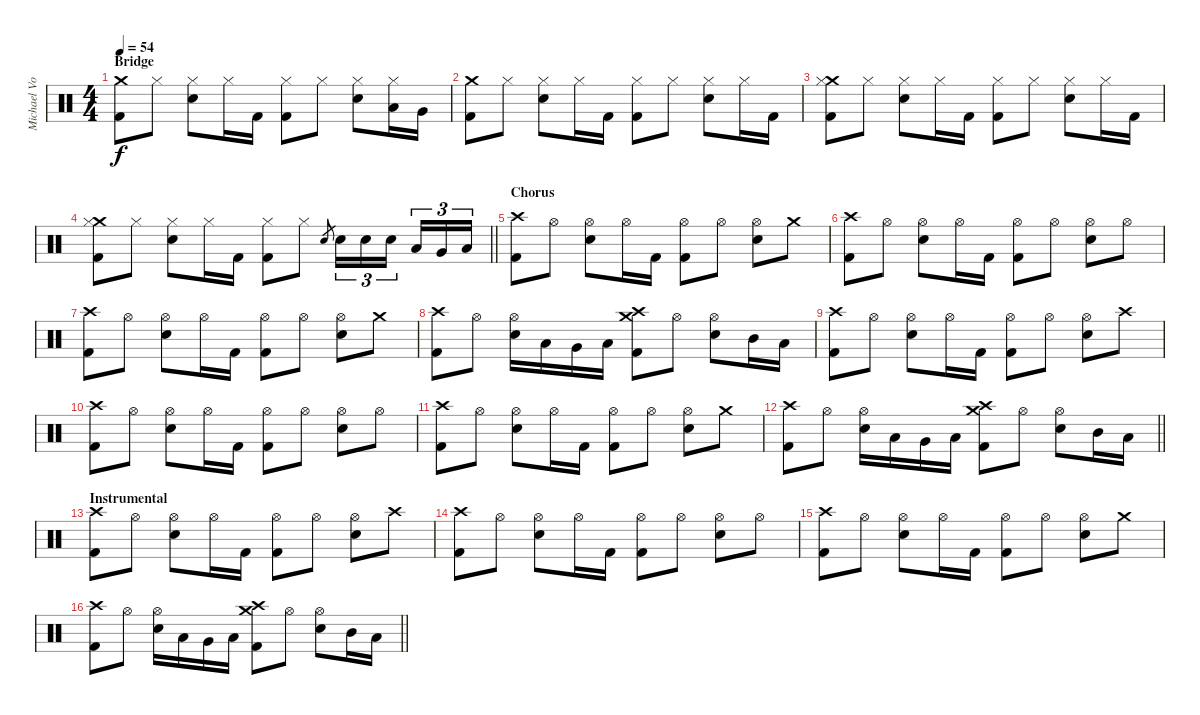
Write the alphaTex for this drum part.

\track ("Michael Von Knorring" "Michael Vo") {instrument percussion}
\staff {score}
\articulation defaults
\ts (4 4)
\section ("" "Bridge")
\tempo 54
\clef neutral
\ks c
("Crash medium (hit)" "Kick (hit) 2").8{dy f} "Hi-Hat (closed)".8 ("Snare (hit) 2" "Hi-Hat (closed)").8 "Hi-Hat (closed)".16 "Kick (hit) 2".16 ("Hi-Hat (closed)" "Kick (hit) 2").8 "Hi-Hat (closed)".8 ("Snare (hit) 2" "Hi-Hat (closed)").8 ("Hi-Hat (closed)" "Low Tom (hit)").16 "Very Low Tom (hit)".16 |
("Crash medium (hit)" "Kick (hit) 2").8 "Hi-Hat (closed)".8 ("Snare (hit) 2" "Hi-Hat (closed)").8 "Hi-Hat (closed)".16 "Kick (hit) 2".16 ("Hi-Hat (closed)" "Kick (hit) 2").8 "Hi-Hat (closed)".8 ("Snare (hit) 2" "Hi-Hat (closed)").8 "Hi-Hat (closed)".16 "Kick (hit) 2".16 |
("Crash medium (hit)" "Hi-Hat (closed)" "Kick (hit) 2").8 "Hi-Hat (closed)".8 ("Hi-Hat (closed)" "Snare (hit) 2").8 "Hi-Hat (closed)".16 "Kick (hit) 2".16 ("Hi-Hat (closed)" "Kick (hit) 2").8 "Hi-Hat (closed)".8 ("Hi-Hat (closed)" "Snare (hit) 2").8 "Hi-Hat (closed)".16 "Kick (hit) 2".16 |
\barLineRight lightlight
("Crash medium (hit)" "Hi-Hat (closed)" "Kick (hit) 2").8 "Hi-Hat (closed)".8 ("Hi-Hat (closed)" "Snare (hit) 2").8 "Hi-Hat (closed)".16 "Kick (hit) 2".16 ("Hi-Hat (closed)" "Kick (hit) 2").8 "Hi-Hat (closed)".8 "Electric Snare (hit)".8{gr} "Electric Snare (hit)".16{tu (3 2)} "Electric Snare (hit)".16{tu (3 2)} "Electric Snare (hit)".16{tu (3 2) beam splitsecondary} "Low Tom (hit)".16{tu (3 2)} "Very Low Tom (hit)".16{tu (3 2)} "Low Floor Tom (hit)".16{tu (3 2)} |
\section ("" "Chorus")
("Crash high (hit)" "Kick (hit) 2").8 "Hi-Hat (open)".8 ("Hi-Hat (open)" "Electric Snare (hit)").8 "Hi-Hat (open)".16 "Kick (hit) 2".16 ("Hi-Hat (open)" "Kick (hit) 2").8 "Hi-Hat (open)".8 ("Hi-Hat (open)" "Electric Snare (hit)").8 "Crash medium (hit)".8 |
("Crash high (hit)" "Kick (hit) 2").8 "Hi-Hat (open)".8 ("Hi-Hat (open)" "Electric Snare (hit)").8 "Hi-Hat (open)".16 "Kick (hit) 2".16 ("Hi-Hat (open)" "Kick (hit) 2").8 "Hi-Hat (open)".8 ("Hi-Hat (open)" "Electric Snare (hit)").8 "Hi-Hat (open)".8 |
("Crash high (hit)" "Kick (hit) 2").8 "Hi-Hat (open)".8 ("Hi-Hat (open)" "Electric Snare (hit)").8 "Hi-Hat (open)".16 "Kick (hit) 2".16 ("Hi-Hat (open)" "Kick (hit) 2").8 "Hi-Hat (open)".8 ("Hi-Hat (open)" "Electric Snare (hit)").8 "Crash medium (hit)".8 |
("Crash high (hit)" "Kick (hit) 2").8 "Hi-Hat (open)".8 ("Hi-Hat (open)" "Electric Snare (hit)").16 "Low Tom (hit)".16 "Very Low Tom (hit)".16 "Low Floor Tom (hit)".16 ("Crash medium (hit)" "Crash high (hit)" "Kick (hit) 2").8 "Hi-Hat (open)".8 ("Hi-Hat (open)" "Electric Snare (hit)").8 "Mid Tom (hit)".16 "Low Tom (hit)".16 |
("Crash high (hit)" "Kick (hit) 2").8 "Hi-Hat (open)".8 ("Hi-Hat (open)" "Electric Snare (hit)").8 "Hi-Hat (open)".16 "Kick (hit) 2".16 ("Hi-Hat (open)" "Kick (hit) 2").8 "Hi-Hat (open)".8 ("Hi-Hat (open)" "Electric Snare (hit)").8 "Crash high (hit)".8 |
("Crash high (hit)" "Kick (hit) 2").8 "Hi-Hat (open)".8 ("Hi-Hat (open)" "Electric Snare (hit)").8 "Hi-Hat (open)".16 "Kick (hit) 2".16 ("Hi-Hat (open)" "Kick (hit) 2").8 "Hi-Hat (open)".8 ("Hi-Hat (open)" "Electric Snare (hit)").8 "Hi-Hat (open)".8 |
("Crash high (hit)" "Kick (hit) 2").8 "Hi-Hat (open)".8 ("Hi-Hat (open)" "Electric Snare (hit)").8 "Hi-Hat (open)".16 "Kick (hit) 2".16 ("Hi-Hat (open)" "Kick (hit) 2").8 "Hi-Hat (open)".8 ("Hi-Hat (open)" "Electric Snare (hit)").8 "Crash medium (hit)".8 |
\barLineRight lightlight
("Crash high (hit)" "Kick (hit) 2").8 "Hi-Hat (open)".8 ("Hi-Hat (open)" "Electric Snare (hit)").16 "Low Tom (hit)".16 "Very Low Tom (hit)".16 "Low Floor Tom (hit)".16 ("Crash medium (hit)" "Crash high (hit)" "Kick (hit) 2").8 "Hi-Hat (open)".8 ("Hi-Hat (open)" "Electric Snare (hit)").8 "Mid Tom (hit)".16 "Low Tom (hit)".16 |
\section ("" "Instrumental")
("Crash high (hit)" "Kick (hit) 2").8 "Hi-Hat (open)".8 ("Hi-Hat (open)" "Electric Snare (hit)").8 "Hi-Hat (open)".16 "Kick (hit) 2".16 ("Hi-Hat (open)" "Kick (hit) 2").8 "Hi-Hat (open)".8 ("Hi-Hat (open)" "Electric Snare (hit)").8 "Crash high (hit)".8 |
("Crash high (hit)" "Kick (hit) 2").8 "Hi-Hat (open)".8 ("Hi-Hat (open)" "Electric Snare (hit)").8 "Hi-Hat (open)".16 "Kick (hit) 2".16 ("Hi-Hat (open)" "Kick (hit) 2").8 "Hi-Hat (open)".8 ("Hi-Hat (open)" "Electric Snare (hit)").8 "Hi-Hat (open)".8 |
("Crash high (hit)" "Kick (hit) 2").8 "Hi-Hat (open)".8 ("Hi-Hat (open)" "Electric Snare (hit)").8 "Hi-Hat (open)".16 "Kick (hit) 2".16 ("Hi-Hat (open)" "Kick (hit) 2").8 "Hi-Hat (open)".8 ("Hi-Hat (open)" "Electric Snare (hit)").8 "Crash medium (hit)".8 |
\barLineRight lightlight
("Crash high (hit)" "Kick (hit) 2").8 "Hi-Hat (open)".8 ("Hi-Hat (open)" "Electric Snare (hit)").16 "Low Tom (hit)".16 "Very Low Tom (hit)".16 "Low Floor Tom (hit)".16 ("Crash medium (hit)" "Crash high (hit)" "Kick (hit) 2").8 "Hi-Hat (open)".8 ("Hi-Hat (open)" "Electric Snare (hit)").8 "Mid Tom (hit)".16 "Low Tom (hit)".16
